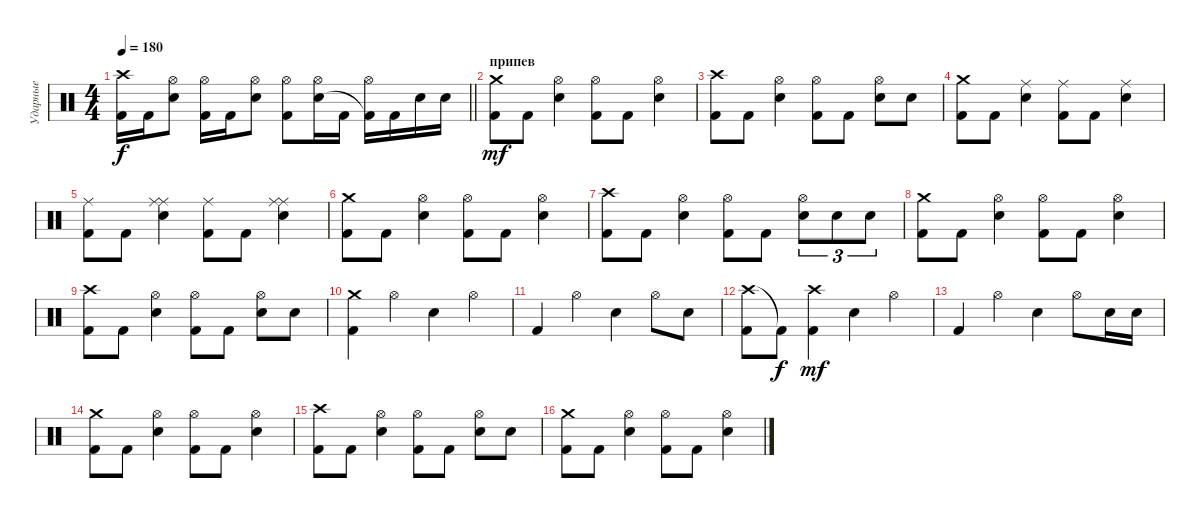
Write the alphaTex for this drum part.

\track ("Ударные" "Ударные") {instrument percussion}
\staff {score}
\articulation defaults
\ts (4 4)
\tempo 180
\clef neutral
\barLineRight lightlight
\ks c
("Crash high (hit)" "Kick (hit) 2").16{dy f} "Kick (hit) 2".16 ("Hi-Hat (open)" "Snare (hit) 2").8 ("Hi-Hat (open)" "Kick (hit) 2").16 "Kick (hit) 2".16 ("Hi-Hat (open)" "Snare (hit) 2").8 ("Hi-Hat (open)" "Kick (hit) 2").8 ("Hi-Hat (open)" "Snare (hit) 2").16 "Kick (hit) 2".16 ("Hi-Hat (open)" "Kick (hit) 2"{t}).16 "Kick (hit) 2".16 "Snare (hit) 2".16 "Snare (hit) 2".16 |
\section ("" "припев")
("Crash medium (hit)" "Kick (hit) 2").8{dy mf} "Kick (hit) 2".8 ("Hi-Hat (open)" "Snare (hit) 2").4 ("Hi-Hat (open)" "Kick (hit) 2").8 "Kick (hit) 2".8 ("Hi-Hat (open)" "Snare (hit) 2").4 |
("Crash high (hit)" "Kick (hit) 2").8 "Kick (hit) 2".8 ("Hi-Hat (open)" "Snare (hit) 2").4 ("Hi-Hat (open)" "Kick (hit) 2").8 "Kick (hit) 2".8 ("Hi-Hat (open)" "Snare (hit) 2").8 "Snare (hit) 2".8 |
("Crash medium (hit)" "Kick (hit) 2").8 "Kick (hit) 2".8 ("Ride (middle)" "Snare (hit) 2").4 ("Ride (middle)" "Kick (hit) 2").8 "Kick (hit) 2".8 ("Ride (middle)" "Snare (hit) 2").4 |
("Ride (middle)" "Kick (hit) 2").8 "Kick (hit) 2".8 ("Ride (middle)" "Ride (middle)" "Snare (hit) 2").4 ("Ride (middle)" "Kick (hit) 2").8 "Kick (hit) 2".8 ("Ride (middle)" "Ride (middle)" "Snare (hit) 2").4 |
("Crash medium (hit)" "Kick (hit) 2").8 "Kick (hit) 2".8 ("Hi-Hat (open)" "Snare (hit) 2").4 ("Hi-Hat (open)" "Kick (hit) 2").8 "Kick (hit) 2".8 ("Hi-Hat (open)" "Snare (hit) 2").4 |
("Crash high (hit)" "Kick (hit) 2").8 "Kick (hit) 2".8 ("Hi-Hat (open)" "Snare (hit) 2").4 ("Hi-Hat (open)" "Kick (hit) 2").8 "Kick (hit) 2".8 ("Hi-Hat (open)" "Snare (hit) 2").8{tu (3 2)} "Snare (hit) 2".8{tu (3 2)} "Snare (hit) 2".8{tu (3 2)} |
("Crash medium (hit)" "Kick (hit) 2").8 "Kick (hit) 2".8 ("Hi-Hat (open)" "Snare (hit) 2").4 ("Hi-Hat (open)" "Kick (hit) 2").8 "Kick (hit) 2".8 ("Hi-Hat (open)" "Snare (hit) 2").4 |
("Crash high (hit)" "Kick (hit) 2").8 "Kick (hit) 2".8 ("Hi-Hat (open)" "Snare (hit) 2").4 ("Hi-Hat (open)" "Kick (hit) 2").8 "Kick (hit) 2".8 ("Hi-Hat (open)" "Snare (hit) 2").8 "Snare (hit) 2".8 |
("Crash medium (hit)" "Kick (hit) 2").4 "Hi-Hat (open)".4 "Snare (hit) 2".4 "Hi-Hat (open)".4 |
"Kick (hit) 2".4 "Hi-Hat (open)".4 "Snare (hit) 2".4 "Hi-Hat (open)".8 "Snare (hit) 2".8 |
("Crash high (hit)" "Kick (hit) 2").8 "Kick (hit) 2"{t}.8{dy f} ("Crash high (hit)" "Kick (hit) 2").4{dy mf} "Snare (hit) 2".4 "Hi-Hat (open)".4 |
"Kick (hit) 2".4 "Hi-Hat (open)".4 "Snare (hit) 2".4 "Hi-Hat (open)".8 "Snare (hit) 2".16 "Snare (hit) 2".16 |
("Crash medium (hit)" "Kick (hit) 2").8 "Kick (hit) 2".8 ("Hi-Hat (open)" "Snare (hit) 2").4 ("Hi-Hat (open)" "Kick (hit) 2").8 "Kick (hit) 2".8 ("Hi-Hat (open)" "Snare (hit) 2").4 |
("Crash high (hit)" "Kick (hit) 2").8 "Kick (hit) 2".8 ("Hi-Hat (open)" "Snare (hit) 2").4 ("Hi-Hat (open)" "Kick (hit) 2").8 "Kick (hit) 2".8 ("Hi-Hat (open)" "Snare (hit) 2").8 "Snare (hit) 2".8 |
("Crash medium (hit)" "Kick (hit) 2").8 "Kick (hit) 2".8 ("Hi-Hat (open)" "Snare (hit) 2").4 ("Hi-Hat (open)" "Kick (hit) 2").8 "Kick (hit) 2".8 ("Hi-Hat (open)" "Snare (hit) 2").4
